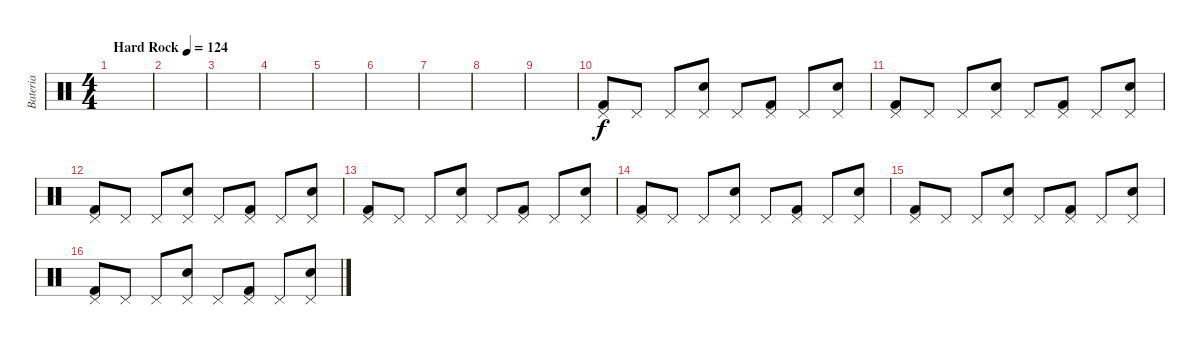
\track ("Bateria" "Bateria") {instrument percussion}
\staff {score}
\articulation defaults
\ts (4 4)
\tempo (124 "Hard Rock")
\clef neutral
\ks c
|
|
|
|
|
|
|
|
|
("Pedal Hi-Hat (hit)" "Kick (hit) 2").8 "Pedal Hi-Hat (hit)".8 "Pedal Hi-Hat (hit)".8 ("Pedal Hi-Hat (hit)" "Electric Snare (hit)").8 "Pedal Hi-Hat (hit)".8 ("Pedal Hi-Hat (hit)" "Kick (hit) 2").8 "Pedal Hi-Hat (hit)".8 ("Pedal Hi-Hat (hit)" "Electric Snare (hit)").8 |
("Pedal Hi-Hat (hit)" "Kick (hit) 2").8 "Pedal Hi-Hat (hit)".8 "Pedal Hi-Hat (hit)".8 ("Pedal Hi-Hat (hit)" "Electric Snare (hit)").8 "Pedal Hi-Hat (hit)".8 ("Pedal Hi-Hat (hit)" "Kick (hit) 2").8 "Pedal Hi-Hat (hit)".8 ("Pedal Hi-Hat (hit)" "Electric Snare (hit)").8 |
("Pedal Hi-Hat (hit)" "Kick (hit) 2").8 "Pedal Hi-Hat (hit)".8 "Pedal Hi-Hat (hit)".8 ("Pedal Hi-Hat (hit)" "Electric Snare (hit)").8 "Pedal Hi-Hat (hit)".8 ("Pedal Hi-Hat (hit)" "Kick (hit) 2").8 "Pedal Hi-Hat (hit)".8 ("Pedal Hi-Hat (hit)" "Electric Snare (hit)").8 |
("Pedal Hi-Hat (hit)" "Kick (hit) 2").8 "Pedal Hi-Hat (hit)".8 "Pedal Hi-Hat (hit)".8 ("Pedal Hi-Hat (hit)" "Electric Snare (hit)").8 "Pedal Hi-Hat (hit)".8 ("Pedal Hi-Hat (hit)" "Kick (hit) 2").8 "Pedal Hi-Hat (hit)".8 ("Pedal Hi-Hat (hit)" "Electric Snare (hit)").8 |
("Pedal Hi-Hat (hit)" "Kick (hit) 2").8 "Pedal Hi-Hat (hit)".8 "Pedal Hi-Hat (hit)".8 ("Pedal Hi-Hat (hit)" "Electric Snare (hit)").8 "Pedal Hi-Hat (hit)".8 ("Pedal Hi-Hat (hit)" "Kick (hit) 2").8 "Pedal Hi-Hat (hit)".8 ("Pedal Hi-Hat (hit)" "Electric Snare (hit)").8 |
("Pedal Hi-Hat (hit)" "Kick (hit) 2").8 "Pedal Hi-Hat (hit)".8 "Pedal Hi-Hat (hit)".8 ("Pedal Hi-Hat (hit)" "Electric Snare (hit)").8 "Pedal Hi-Hat (hit)".8 ("Pedal Hi-Hat (hit)" "Kick (hit) 2").8 "Pedal Hi-Hat (hit)".8 ("Pedal Hi-Hat (hit)" "Electric Snare (hit)").8 |
("Pedal Hi-Hat (hit)" "Kick (hit) 2").8 "Pedal Hi-Hat (hit)".8 "Pedal Hi-Hat (hit)".8 ("Pedal Hi-Hat (hit)" "Electric Snare (hit)").8 "Pedal Hi-Hat (hit)".8 ("Pedal Hi-Hat (hit)" "Kick (hit) 2").8 "Pedal Hi-Hat (hit)".8 ("Pedal Hi-Hat (hit)" "Electric Snare (hit)").8
